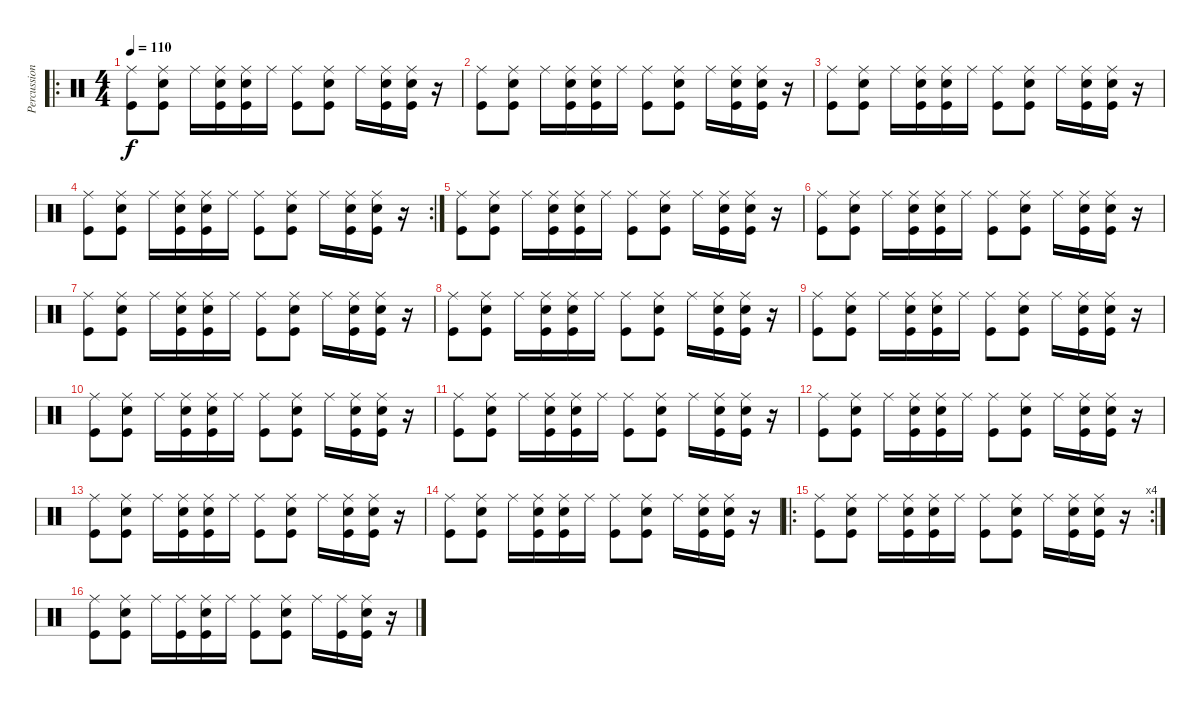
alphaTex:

\track ("Percussion" "Percussion") {instrument percussion}
\staff {score}
\articulation defaults
\ro
\ts (4 4)
\tempo 110
\clef neutral
\ks c
("Ride (middle)" "Kick (hit)").8{dy f} ("Snare (hit) 2" "Ride (middle)" "Kick (hit)").8 "Ride (middle)".16 ("Snare (hit) 2" "Ride (middle)" "Kick (hit)").16 ("Snare (hit) 2" "Ride (middle)" "Kick (hit)").16 "Ride (middle)".16 ("Ride (middle)" "Kick (hit)").8 ("Snare (hit) 2" "Ride (middle)" "Kick (hit)").8 "Ride (middle)".16 ("Snare (hit) 2" "Ride (middle)" "Kick (hit)").16 ("Snare (hit) 2" "Ride (middle)" "Kick (hit)").16 r.16 |
("Ride (middle)" "Kick (hit)").8 ("Snare (hit) 2" "Ride (middle)" "Kick (hit)").8 "Ride (middle)".16 ("Snare (hit) 2" "Ride (middle)" "Kick (hit)").16 ("Snare (hit) 2" "Ride (middle)" "Kick (hit)").16 "Ride (middle)".16 ("Ride (middle)" "Kick (hit)").8 ("Snare (hit) 2" "Ride (middle)" "Kick (hit)").8 "Ride (middle)".16 ("Snare (hit) 2" "Ride (middle)" "Kick (hit)").16 ("Snare (hit) 2" "Ride (middle)" "Kick (hit)").16 r.16 |
("Ride (middle)" "Kick (hit)").8 ("Snare (hit) 2" "Ride (middle)" "Kick (hit)").8 "Ride (middle)".16 ("Snare (hit) 2" "Ride (middle)" "Kick (hit)").16 ("Snare (hit) 2" "Ride (middle)" "Kick (hit)").16 "Ride (middle)".16 ("Ride (middle)" "Kick (hit)").8 ("Snare (hit) 2" "Ride (middle)" "Kick (hit)").8 "Ride (middle)".16 ("Snare (hit) 2" "Ride (middle)" "Kick (hit)").16 ("Snare (hit) 2" "Ride (middle)" "Kick (hit)").16 r.16 |
\rc 2
("Ride (middle)" "Kick (hit)").8 ("Snare (hit) 2" "Ride (middle)" "Kick (hit)").8 "Ride (middle)".16 ("Snare (hit) 2" "Ride (middle)" "Kick (hit)").16 ("Snare (hit) 2" "Ride (middle)" "Kick (hit)").16 "Ride (middle)".16 ("Ride (middle)" "Kick (hit)").8 ("Snare (hit) 2" "Ride (middle)" "Kick (hit)").8 "Ride (middle)".16 ("Snare (hit) 2" "Ride (middle)" "Kick (hit)").16 ("Snare (hit) 2" "Ride (middle)" "Kick (hit)").16 r.16 |
("Ride (middle)" "Kick (hit)").8 ("Snare (hit) 2" "Ride (middle)" "Kick (hit)").8 "Ride (middle)".16 ("Snare (hit) 2" "Ride (middle)" "Kick (hit)").16 ("Snare (hit) 2" "Ride (middle)" "Kick (hit)").16 "Ride (middle)".16 ("Ride (middle)" "Kick (hit)").8 ("Snare (hit) 2" "Ride (middle)" "Kick (hit)").8 "Ride (middle)".16 ("Snare (hit) 2" "Ride (middle)" "Kick (hit)").16 ("Snare (hit) 2" "Ride (middle)" "Kick (hit)").16 r.16 |
("Ride (middle)" "Kick (hit)").8 ("Snare (hit) 2" "Ride (middle)" "Kick (hit)").8 "Ride (middle)".16 ("Snare (hit) 2" "Ride (middle)" "Kick (hit)").16 ("Snare (hit) 2" "Ride (middle)" "Kick (hit)").16 "Ride (middle)".16 ("Ride (middle)" "Kick (hit)").8 ("Snare (hit) 2" "Ride (middle)" "Kick (hit)").8 "Ride (middle)".16 ("Snare (hit) 2" "Ride (middle)" "Kick (hit)").16 ("Snare (hit) 2" "Ride (middle)" "Kick (hit)").16 r.16 |
("Ride (middle)" "Kick (hit)").8 ("Snare (hit) 2" "Ride (middle)" "Kick (hit)").8 "Ride (middle)".16 ("Snare (hit) 2" "Ride (middle)" "Kick (hit)").16 ("Snare (hit) 2" "Ride (middle)" "Kick (hit)").16 "Ride (middle)".16 ("Ride (middle)" "Kick (hit)").8 ("Snare (hit) 2" "Ride (middle)" "Kick (hit)").8 "Ride (middle)".16 ("Snare (hit) 2" "Ride (middle)" "Kick (hit)").16 ("Snare (hit) 2" "Ride (middle)" "Kick (hit)").16 r.16 |
("Ride (middle)" "Kick (hit)").8 ("Snare (hit) 2" "Ride (middle)" "Kick (hit)").8 "Ride (middle)".16 ("Snare (hit) 2" "Ride (middle)" "Kick (hit)").16 ("Snare (hit) 2" "Ride (middle)" "Kick (hit)").16 "Ride (middle)".16 ("Ride (middle)" "Kick (hit)").8 ("Snare (hit) 2" "Ride (middle)" "Kick (hit)").8 "Ride (middle)".16 ("Snare (hit) 2" "Ride (middle)" "Kick (hit)").16 ("Snare (hit) 2" "Ride (middle)" "Kick (hit)").16 r.16 |
("Ride (middle)" "Kick (hit)").8 ("Snare (hit) 2" "Ride (middle)" "Kick (hit)").8 "Ride (middle)".16 ("Snare (hit) 2" "Ride (middle)" "Kick (hit)").16 ("Snare (hit) 2" "Ride (middle)" "Kick (hit)").16 "Ride (middle)".16 ("Ride (middle)" "Kick (hit)").8 ("Snare (hit) 2" "Ride (middle)" "Kick (hit)").8 "Ride (middle)".16 ("Snare (hit) 2" "Ride (middle)" "Kick (hit)").16 ("Snare (hit) 2" "Ride (middle)" "Kick (hit)").16 r.16 |
("Ride (middle)" "Kick (hit)").8 ("Snare (hit) 2" "Ride (middle)" "Kick (hit)").8 "Ride (middle)".16 ("Snare (hit) 2" "Ride (middle)" "Kick (hit)").16 ("Snare (hit) 2" "Ride (middle)" "Kick (hit)").16 "Ride (middle)".16 ("Ride (middle)" "Kick (hit)").8 ("Snare (hit) 2" "Ride (middle)" "Kick (hit)").8 "Ride (middle)".16 ("Snare (hit) 2" "Ride (middle)" "Kick (hit)").16 ("Snare (hit) 2" "Ride (middle)" "Kick (hit)").16 r.16 |
("Ride (middle)" "Kick (hit)").8 ("Snare (hit) 2" "Ride (middle)" "Kick (hit)").8 "Ride (middle)".16 ("Snare (hit) 2" "Ride (middle)" "Kick (hit)").16 ("Snare (hit) 2" "Ride (middle)" "Kick (hit)").16 "Ride (middle)".16 ("Ride (middle)" "Kick (hit)").8 ("Snare (hit) 2" "Ride (middle)" "Kick (hit)").8 "Ride (middle)".16 ("Snare (hit) 2" "Ride (middle)" "Kick (hit)").16 ("Snare (hit) 2" "Ride (middle)" "Kick (hit)").16 r.16 |
("Ride (middle)" "Kick (hit)").8 ("Snare (hit) 2" "Ride (middle)" "Kick (hit)").8 "Ride (middle)".16 ("Snare (hit) 2" "Ride (middle)" "Kick (hit)").16 ("Snare (hit) 2" "Ride (middle)" "Kick (hit)").16 "Ride (middle)".16 ("Ride (middle)" "Kick (hit)").8 ("Snare (hit) 2" "Ride (middle)" "Kick (hit)").8 "Ride (middle)".16 ("Snare (hit) 2" "Ride (middle)" "Kick (hit)").16 ("Snare (hit) 2" "Ride (middle)" "Kick (hit)").16 r.16 |
("Ride (middle)" "Kick (hit)").8 ("Snare (hit) 2" "Ride (middle)" "Kick (hit)").8 "Ride (middle)".16 ("Snare (hit) 2" "Ride (middle)" "Kick (hit)").16 ("Snare (hit) 2" "Ride (middle)" "Kick (hit)").16 "Ride (middle)".16 ("Ride (middle)" "Kick (hit)").8 ("Snare (hit) 2" "Ride (middle)" "Kick (hit)").8 "Ride (middle)".16 ("Snare (hit) 2" "Ride (middle)" "Kick (hit)").16 ("Snare (hit) 2" "Ride (middle)" "Kick (hit)").16 r.16 |
("Ride (middle)" "Kick (hit)").8 ("Snare (hit) 2" "Ride (middle)" "Kick (hit)").8 "Ride (middle)".16 ("Snare (hit) 2" "Ride (middle)" "Kick (hit)").16 ("Snare (hit) 2" "Ride (middle)" "Kick (hit)").16 "Ride (middle)".16 ("Ride (middle)" "Kick (hit)").8 ("Snare (hit) 2" "Ride (middle)" "Kick (hit)").8 "Ride (middle)".16 ("Snare (hit) 2" "Ride (middle)" "Kick (hit)").16 ("Snare (hit) 2" "Ride (middle)" "Kick (hit)").16 r.16 |
\ro
\rc 4
("Ride (middle)" "Kick (hit)").8 ("Snare (hit) 2" "Ride (middle)" "Kick (hit)").8 "Ride (middle)".16 ("Snare (hit) 2" "Ride (middle)" "Kick (hit)").16 ("Snare (hit) 2" "Ride (middle)" "Kick (hit)").16 "Ride (middle)".16 ("Ride (middle)" "Kick (hit)").8 ("Snare (hit) 2" "Ride (middle)" "Kick (hit)").8 "Ride (middle)".16 ("Snare (hit) 2" "Ride (middle)" "Kick (hit)").16 ("Snare (hit) 2" "Ride (middle)" "Kick (hit)").16 r.16 |
("Ride (middle)" "Kick (hit)").8 ("Snare (hit) 2" "Ride (middle)" "Kick (hit)").8 "Ride (middle)".16 ("Ride (middle)" "Kick (hit)").16 ("Snare (hit) 2" "Ride (middle)" "Kick (hit)").16 "Ride (middle)".16 ("Ride (middle)" "Kick (hit)").8 ("Snare (hit) 2" "Ride (middle)" "Kick (hit)").8 "Ride (middle)".16 ("Ride (middle)" "Kick (hit)").16 ("Snare (hit) 2" "Ride (middle)" "Kick (hit)").16 r.16
